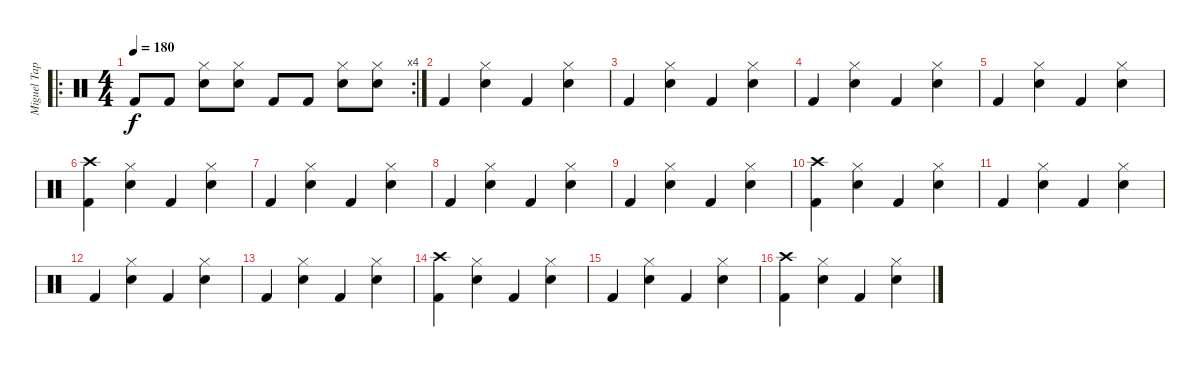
\track ("Miguel Tapia" "Miguel Tap") {instrument percussion}
\staff {score}
\articulation defaults
\ro
\rc 4
\ts (4 4)
\tempo 180
\clef neutral
\ks c "Kick (hit) 2".8{dy f} "Kick (hit) 2".8
("Electric Snare (hit)" "Hi-Hat (closed)").8 ("Electric Snare (hit)" "Hi-Hat (closed)").8 "Kick (hit) 2".8 "Kick (hit) 2".8 ("Electric Snare (hit)" "Hi-Hat (closed)").8 ("Electric Snare (hit)" "Hi-Hat (closed)").8 |
"Kick (hit) 2".4 ("Electric Snare (hit)" "Hi-Hat (closed)").4 "Kick (hit) 2".4 ("Electric Snare (hit)" "Hi-Hat (closed)").4 |
"Kick (hit) 2".4 ("Electric Snare (hit)" "Hi-Hat (closed)").4 "Kick (hit) 2".4 ("Electric Snare (hit)" "Hi-Hat (closed)").4 |
"Kick (hit) 2".4 ("Electric Snare (hit)" "Hi-Hat (closed)").4 "Kick (hit) 2".4 ("Electric Snare (hit)" "Hi-Hat (closed)").4 |
"Kick (hit) 2".4 ("Electric Snare (hit)" "Hi-Hat (closed)").4 "Kick (hit) 2".4 ("Electric Snare (hit)" "Hi-Hat (closed)").4 |
("Kick (hit) 2" "Crash high (hit)").4 ("Electric Snare (hit)" "Hi-Hat (closed)").4 "Kick (hit) 2".4 ("Electric Snare (hit)" "Hi-Hat (closed)").4 |
"Kick (hit) 2".4 ("Electric Snare (hit)" "Hi-Hat (closed)").4 "Kick (hit) 2".4 ("Electric Snare (hit)" "Hi-Hat (closed)").4 |
"Kick (hit) 2".4 ("Electric Snare (hit)" "Hi-Hat (closed)").4 "Kick (hit) 2".4 ("Electric Snare (hit)" "Hi-Hat (closed)").4 |
"Kick (hit) 2".4 ("Electric Snare (hit)" "Hi-Hat (closed)").4 "Kick (hit) 2".4 ("Electric Snare (hit)" "Hi-Hat (closed)").4 |
("Kick (hit) 2" "Crash high (hit)").4 ("Electric Snare (hit)" "Hi-Hat (closed)").4 "Kick (hit) 2".4 ("Electric Snare (hit)" "Hi-Hat (closed)").4 |
"Kick (hit) 2".4 ("Electric Snare (hit)" "Hi-Hat (closed)").4 "Kick (hit) 2".4 ("Electric Snare (hit)" "Hi-Hat (closed)").4 |
"Kick (hit) 2".4 ("Electric Snare (hit)" "Hi-Hat (closed)").4 "Kick (hit) 2".4 ("Electric Snare (hit)" "Hi-Hat (closed)").4 |
"Kick (hit) 2".4 ("Electric Snare (hit)" "Hi-Hat (closed)").4 "Kick (hit) 2".4 ("Electric Snare (hit)" "Hi-Hat (closed)").4 |
("Kick (hit) 2" "Crash high (hit)").4 ("Electric Snare (hit)" "Hi-Hat (closed)").4 "Kick (hit) 2".4 ("Electric Snare (hit)" "Hi-Hat (closed)").4 |
"Kick (hit) 2".4 ("Electric Snare (hit)" "Hi-Hat (closed)").4 "Kick (hit) 2".4 ("Electric Snare (hit)" "Hi-Hat (closed)").4 |
("Kick (hit) 2" "Crash high (hit)").4 ("Electric Snare (hit)" "Hi-Hat (closed)").4 "Kick (hit) 2".4 ("Electric Snare (hit)" "Hi-Hat (closed)").4
